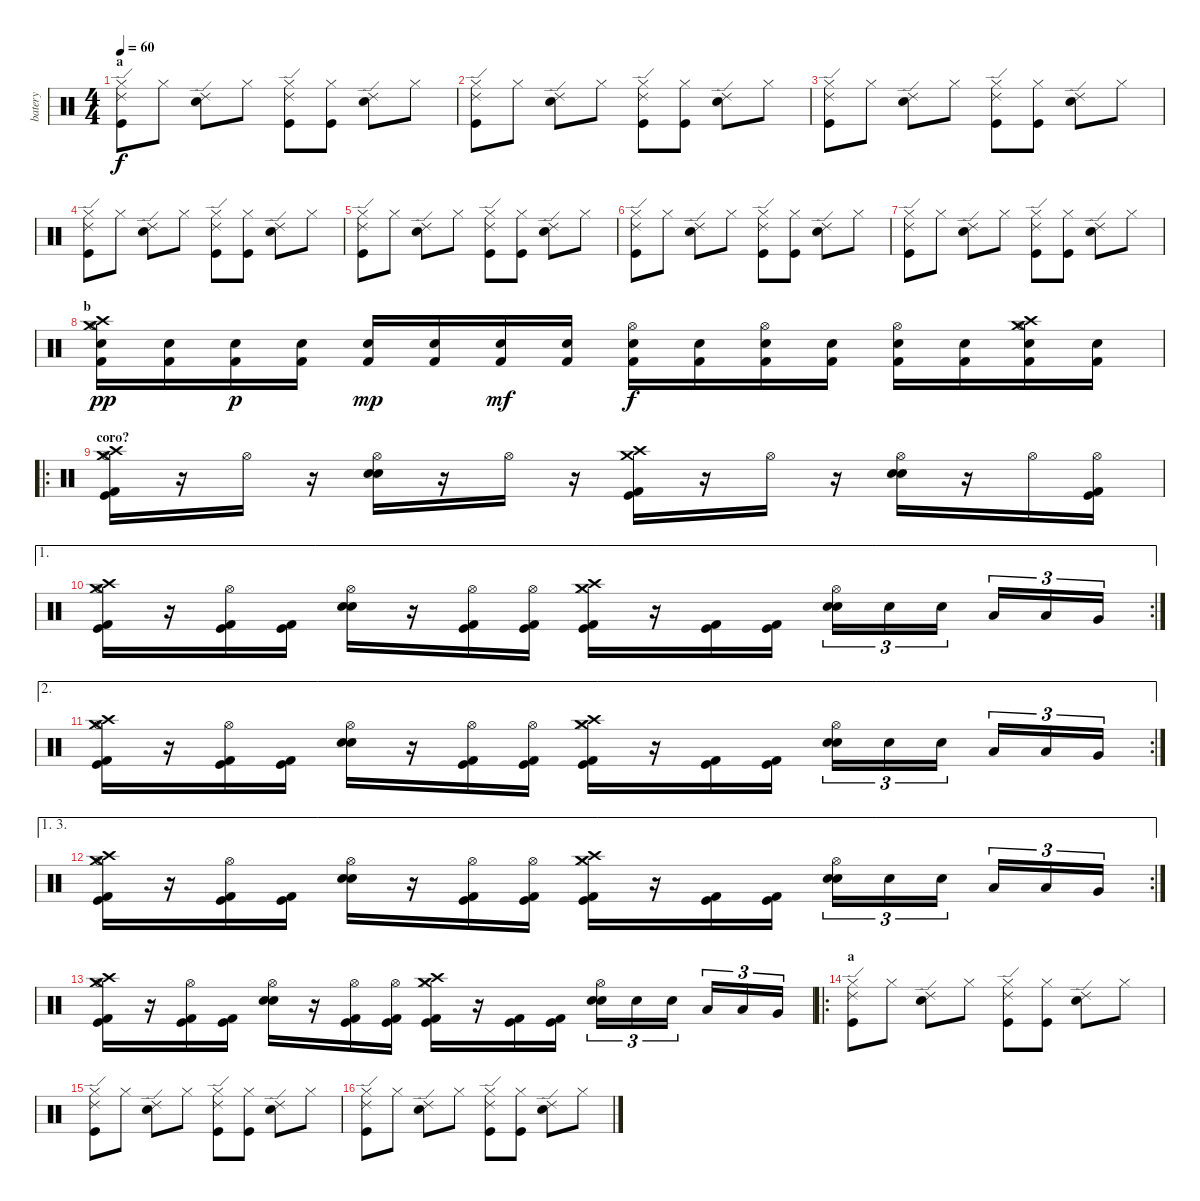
\track ("batery" "batery") {instrument percussion}
\staff {score}
\articulation defaults
\ts (4 4)
\section ("" "a")
\tempo 60
\clef neutral
\ks c
("Kick (hit)" "Hi-Hat (closed)" "Ride (edge) 2").8{dy f} "Hi-Hat (closed)".8 ("Electric Snare (hit)" "Ride (edge) 2").8 "Hi-Hat (closed)".8 ("Kick (hit)" "Hi-Hat (closed)" "Ride (edge) 2").8 ("Kick (hit)" "Hi-Hat (closed)").8 ("Electric Snare (hit)" "Ride (edge) 2").8 "Hi-Hat (closed)".8 |
("Kick (hit)" "Hi-Hat (closed)" "Ride (edge) 2").8 "Hi-Hat (closed)".8 ("Electric Snare (hit)" "Ride (edge) 2").8 "Hi-Hat (closed)".8 ("Kick (hit)" "Hi-Hat (closed)" "Ride (edge) 2").8 ("Kick (hit)" "Hi-Hat (closed)").8 ("Electric Snare (hit)" "Ride (edge) 2").8 "Hi-Hat (closed)".8 |
("Kick (hit)" "Hi-Hat (closed)" "Ride (edge) 2").8 "Hi-Hat (closed)".8 ("Electric Snare (hit)" "Ride (edge) 2").8 "Hi-Hat (closed)".8 ("Kick (hit)" "Hi-Hat (closed)" "Ride (edge) 2").8 ("Kick (hit)" "Hi-Hat (closed)").8 ("Electric Snare (hit)" "Ride (edge) 2").8 "Hi-Hat (closed)".8 |
("Kick (hit)" "Hi-Hat (closed)" "Ride (edge) 2").8 "Hi-Hat (closed)".8 ("Electric Snare (hit)" "Ride (edge) 2").8 "Hi-Hat (closed)".8 ("Kick (hit)" "Hi-Hat (closed)" "Ride (edge) 2").8 ("Kick (hit)" "Hi-Hat (closed)").8 ("Electric Snare (hit)" "Ride (edge) 2").8 "Hi-Hat (closed)".8 |
("Kick (hit)" "Hi-Hat (closed)" "Ride (edge) 2").8 "Hi-Hat (closed)".8 ("Electric Snare (hit)" "Ride (edge) 2").8 "Hi-Hat (closed)".8 ("Kick (hit)" "Hi-Hat (closed)" "Ride (edge) 2").8 ("Kick (hit)" "Hi-Hat (closed)").8 ("Electric Snare (hit)" "Ride (edge) 2").8 "Hi-Hat (closed)".8 |
("Kick (hit)" "Hi-Hat (closed)" "Ride (edge) 2").8 "Hi-Hat (closed)".8 ("Electric Snare (hit)" "Ride (edge) 2").8 "Hi-Hat (closed)".8 ("Kick (hit)" "Hi-Hat (closed)" "Ride (edge) 2").8 ("Kick (hit)" "Hi-Hat (closed)").8 ("Electric Snare (hit)" "Ride (edge) 2").8 "Hi-Hat (closed)".8 |
("Kick (hit)" "Hi-Hat (closed)" "Ride (edge) 2").8 "Hi-Hat (closed)".8 ("Electric Snare (hit)" "Ride (edge) 2").8 "Hi-Hat (closed)".8 ("Kick (hit)" "Hi-Hat (closed)" "Ride (edge) 2").8 ("Kick (hit)" "Hi-Hat (closed)").8 ("Electric Snare (hit)" "Ride (edge) 2").8 "Hi-Hat (closed)".8 |
\section ("" "b")
("Electric Snare (hit)" "Kick (hit) 2" "Hi-Hat (open)" "Crash medium (hit)" "Crash high (hit)").16{dy pp} ("Electric Snare (hit)" "Kick (hit) 2").16 ("Electric Snare (hit)" "Kick (hit) 2").16{dy p} ("Electric Snare (hit)" "Kick (hit) 2").16 ("Electric Snare (hit)" "Kick (hit) 2").16{dy mp} ("Electric Snare (hit)" "Kick (hit) 2").16 ("Electric Snare (hit)" "Kick (hit) 2").16{dy mf} ("Electric Snare (hit)" "Kick (hit) 2").16 ("Electric Snare (hit)" "Kick (hit) 2" "Hi-Hat (open)").16{dy f} ("Electric Snare (hit)" "Kick (hit) 2").16 ("Electric Snare (hit)" "Kick (hit) 2" "Hi-Hat (open)").16 ("Electric Snare (hit)" "Kick (hit) 2").16 ("Electric Snare (hit)" "Kick (hit) 2" "Hi-Hat (open)").16 ("Electric Snare (hit)" "Kick (hit) 2").16 ("Electric Snare (hit)" "Kick (hit) 2" "Hi-Hat (open)" "Crash medium (hit)" "Crash high (hit)").16 ("Electric Snare (hit)" "Kick (hit) 2").16 |
\ro
\section ("" "coro?")
("Kick (hit) 2" "Kick (hit)" "Hi-Hat (open)" "Crash high (hit)" "Crash medium (hit)").16 r.16 "Hi-Hat (open)".16 r.16 ("Electric Snare (hit)" "Snare (hit) 2" "Hi-Hat (open)").16 r.16 "Hi-Hat (open)".16 r.16 ("Kick (hit) 2" "Kick (hit)" "Crash high (hit)" "Crash medium (hit)").16 r.16 "Hi-Hat (open)".16 r.16 ("Electric Snare (hit)" "Snare (hit) 2" "Hi-Hat (open)").16 r.16 "Hi-Hat (open)".16 ("Kick (hit) 2" "Kick (hit)" "Hi-Hat (open)").16 |
\ae 1
\rc 2
("Kick (hit) 2" "Kick (hit)" "Hi-Hat (open)" "Crash high (hit)" "Crash medium (hit)").16 r.16 ("Kick (hit) 2" "Kick (hit)" "Hi-Hat (open)").16 ("Kick (hit) 2" "Kick (hit)").16 ("Electric Snare (hit)" "Snare (hit) 2" "Hi-Hat (open)").16 r.16 ("Kick (hit) 2" "Kick (hit)" "Hi-Hat (open)").16 ("Kick (hit) 2" "Kick (hit)" "Hi-Hat (open)").16 ("Kick (hit) 2" "Kick (hit)" "Hi-Hat (closed)" "Crash high (hit)" "Crash medium (hit)").16 r.16 ("Kick (hit) 2" "Kick (hit)").16 ("Kick (hit) 2" "Kick (hit)").16 ("Electric Snare (hit)" "Snare (hit) 2" "Hi-Hat (open)").16{tu (3 2)} "Electric Snare (hit)".16{tu (3 2)} "Electric Snare (hit)".16{tu (3 2)} "Low Tom (hit)".16{tu (3 2)} "Low Tom (hit)".16{tu (3 2)} "Very Low Tom (hit)".16{tu (3 2)} |
\ae 2
\rc 2
("Kick (hit) 2" "Kick (hit)" "Hi-Hat (open)" "Crash high (hit)" "Crash medium (hit)").16 r.16 ("Kick (hit) 2" "Kick (hit)" "Hi-Hat (open)").16 ("Kick (hit) 2" "Kick (hit)").16 ("Electric Snare (hit)" "Snare (hit) 2" "Hi-Hat (open)").16 r.16 ("Kick (hit) 2" "Kick (hit)" "Hi-Hat (open)").16 ("Kick (hit) 2" "Kick (hit)" "Hi-Hat (open)").16 ("Kick (hit) 2" "Kick (hit)" "Hi-Hat (closed)" "Crash high (hit)" "Crash medium (hit)").16 r.16 ("Kick (hit) 2" "Kick (hit)").16 ("Kick (hit) 2" "Kick (hit)").16 ("Electric Snare (hit)" "Snare (hit) 2" "Hi-Hat (open)").16{tu (3 2)} "Electric Snare (hit)".16{tu (3 2)} "Electric Snare (hit)".16{tu (3 2)} "Low Tom (hit)".16{tu (3 2)} "Low Tom (hit)".16{tu (3 2)} "Very Low Tom (hit)".16{tu (3 2)} |
\ae (1 3)
\rc 2
("Kick (hit) 2" "Kick (hit)" "Hi-Hat (open)" "Crash high (hit)" "Crash medium (hit)").16 r.16 ("Kick (hit) 2" "Kick (hit)" "Hi-Hat (open)").16 ("Kick (hit) 2" "Kick (hit)").16 ("Electric Snare (hit)" "Snare (hit) 2" "Hi-Hat (open)").16 r.16 ("Kick (hit) 2" "Kick (hit)" "Hi-Hat (open)").16 ("Kick (hit) 2" "Kick (hit)" "Hi-Hat (open)").16 ("Kick (hit) 2" "Kick (hit)" "Hi-Hat (closed)" "Crash high (hit)" "Crash medium (hit)").16 r.16 ("Kick (hit) 2" "Kick (hit)").16 ("Kick (hit) 2" "Kick (hit)").16 ("Electric Snare (hit)" "Snare (hit) 2" "Hi-Hat (open)").16{tu (3 2)} "Electric Snare (hit)".16{tu (3 2)} "Electric Snare (hit)".16{tu (3 2)} "Low Tom (hit)".16{tu (3 2)} "Low Tom (hit)".16{tu (3 2)} "Very Low Tom (hit)".16{tu (3 2)} |
("Kick (hit) 2" "Kick (hit)" "Hi-Hat (open)" "Crash high (hit)" "Crash medium (hit)").16 r.16 ("Kick (hit) 2" "Kick (hit)" "Hi-Hat (open)").16 ("Kick (hit) 2" "Kick (hit)").16 ("Electric Snare (hit)" "Snare (hit) 2" "Hi-Hat (open)").16 r.16 ("Kick (hit) 2" "Kick (hit)" "Hi-Hat (open)").16 ("Kick (hit) 2" "Kick (hit)" "Hi-Hat (open)").16 ("Kick (hit) 2" "Kick (hit)" "Hi-Hat (closed)" "Crash high (hit)" "Crash medium (hit)").16 r.16 ("Kick (hit) 2" "Kick (hit)").16 ("Kick (hit) 2" "Kick (hit)").16 ("Electric Snare (hit)" "Snare (hit) 2" "Hi-Hat (open)").16{tu (3 2)} "Electric Snare (hit)".16{tu (3 2)} "Electric Snare (hit)".16{tu (3 2)} "Low Tom (hit)".16{tu (3 2)} "Low Tom (hit)".16{tu (3 2)} "Very Low Tom (hit)".16{tu (3 2)} |
\ro
\section ("" "a")
("Kick (hit)" "Hi-Hat (closed)" "Ride (edge) 2").8 "Hi-Hat (closed)".8 ("Electric Snare (hit)" "Ride (edge) 2").8 "Hi-Hat (closed)".8 ("Kick (hit)" "Hi-Hat (closed)" "Ride (edge) 2").8 ("Kick (hit)" "Hi-Hat (closed)").8 ("Electric Snare (hit)" "Ride (edge) 2").8 "Hi-Hat (closed)".8 |
("Kick (hit)" "Hi-Hat (closed)" "Ride (edge) 2").8 "Hi-Hat (closed)".8 ("Electric Snare (hit)" "Ride (edge) 2").8 "Hi-Hat (closed)".8 ("Kick (hit)" "Hi-Hat (closed)" "Ride (edge) 2").8 ("Kick (hit)" "Hi-Hat (closed)").8 ("Electric Snare (hit)" "Ride (edge) 2").8 "Hi-Hat (closed)".8 |
("Kick (hit)" "Hi-Hat (closed)" "Ride (edge) 2").8 "Hi-Hat (closed)".8 ("Electric Snare (hit)" "Ride (edge) 2").8 "Hi-Hat (closed)".8 ("Kick (hit)" "Hi-Hat (closed)" "Ride (edge) 2").8 ("Kick (hit)" "Hi-Hat (closed)").8 ("Electric Snare (hit)" "Ride (edge) 2").8 "Hi-Hat (closed)".8
